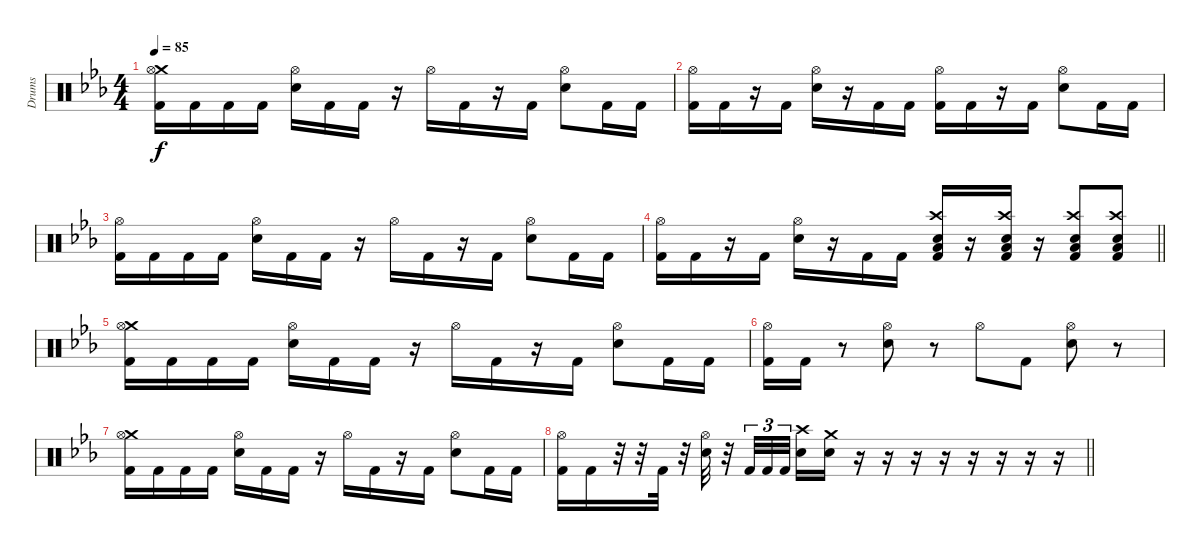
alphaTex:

\track ("Drums" "Drums") {instrument percussion}
\staff {score}
\articulation defaults
\ts (4 4)
\tempo 85
\clef neutral
\ks cminor
("Crash medium (hit)" "Hi-Hat (open)" "Kick (hit) 2").16{dy f} "Kick (hit) 2".16 "Kick (hit) 2".16 "Kick (hit) 2".16 ("Hi-Hat (open)" "Electric Snare (hit)").16 "Kick (hit) 2".16 "Kick (hit) 2".16 r.16 "Hi-Hat (open)".16 "Kick (hit) 2".16 r.16 "Kick (hit) 2".16 ("Hi-Hat (open)" "Electric Snare (hit)").8 "Kick (hit) 2".16 "Kick (hit) 2".16 |
("Hi-Hat (open)" "Kick (hit) 2").16 "Kick (hit) 2".16 r.16 "Kick (hit) 2".16 ("Hi-Hat (open)" "Electric Snare (hit)").16 r.16 "Kick (hit) 2".16 "Kick (hit) 2".16 ("Hi-Hat (open)" "Kick (hit) 2").16 "Kick (hit) 2".16 r.16 "Kick (hit) 2".16 ("Hi-Hat (open)" "Electric Snare (hit)").8 "Kick (hit) 2".16 "Kick (hit) 2".16 |
("Hi-Hat (open)" "Kick (hit) 2").16 "Kick (hit) 2".16 "Kick (hit) 2".16 "Kick (hit) 2".16 ("Hi-Hat (open)" "Electric Snare (hit)").16 "Kick (hit) 2".16 "Kick (hit) 2".16 r.16 "Hi-Hat (open)".16 "Kick (hit) 2".16 r.16 "Kick (hit) 2".16 ("Hi-Hat (open)" "Electric Snare (hit)").8 "Kick (hit) 2".16 "Kick (hit) 2".16 |
\barLineRight lightlight
("Hi-Hat (open)" "Kick (hit) 2").16 "Kick (hit) 2".16 r.16 "Kick (hit) 2".16 ("Hi-Hat (open)" "Electric Snare (hit)").16 r.16 "Kick (hit) 2".16 "Kick (hit) 2".16 ("Crash high (hit)" "Electric Snare (hit)" "Low Tom (hit)" "Kick (hit) 2").16 r.16 ("Crash high (hit)" "Electric Snare (hit)" "Low Tom (hit)" "Kick (hit) 2").16 r.16 ("Crash high (hit)" "Electric Snare (hit)" "Low Tom (hit)" "Kick (hit) 2").8 ("Crash high (hit)" "Electric Snare (hit)" "Low Tom (hit)" "Kick (hit) 2").8 |
\section ("" "")
("Crash medium (hit)" "Hi-Hat (open)" "Kick (hit) 2").16 "Kick (hit) 2".16 "Kick (hit) 2".16 "Kick (hit) 2".16 ("Hi-Hat (open)" "Electric Snare (hit)").16 "Kick (hit) 2".16 "Kick (hit) 2".16 r.16 "Hi-Hat (open)".16 "Kick (hit) 2".16 r.16 "Kick (hit) 2".16 ("Hi-Hat (open)" "Electric Snare (hit)").8 "Kick (hit) 2".16 "Kick (hit) 2".16 |
("Hi-Hat (open)" "Kick (hit) 2").16 "Kick (hit) 2".16 r.8 ("Hi-Hat (open)" "Electric Snare (hit)").8 r.8 "Hi-Hat (open)".8 "Kick (hit) 2".8 ("Hi-Hat (open)" "Electric Snare (hit)").8 r.8 |
("Crash medium (hit)" "Hi-Hat (open)" "Kick (hit) 2").16 "Kick (hit) 2".16 "Kick (hit) 2".16 "Kick (hit) 2".16 ("Hi-Hat (open)" "Electric Snare (hit)").16 "Kick (hit) 2".16 "Kick (hit) 2".16 r.16 "Hi-Hat (open)".16 "Kick (hit) 2".16 r.16 "Kick (hit) 2".16 ("Hi-Hat (open)" "Electric Snare (hit)").8 "Kick (hit) 2".16 "Kick (hit) 2".16 |
\barLineRight lightlight
("Hi-Hat (open)" "Kick (hit) 2").16 "Kick (hit) 2".16 r.32 r.32 "Kick (hit) 2".32 r.32 ("Hi-Hat (open)" "Electric Snare (hit)").32 r.32 "Kick (hit) 2".32{tu (3 2)} "Kick (hit) 2".32{tu (3 2)} "Kick (hit) 2".32{tu (3 2) beam splitsecondary} ("Crash high (hit)" "Electric Snare (hit)").16 ("Crash medium (hit)" "Electric Snare (hit)").16 r.16 r.16 r.16 r.16 r.16 r.16 r.16 r.16
